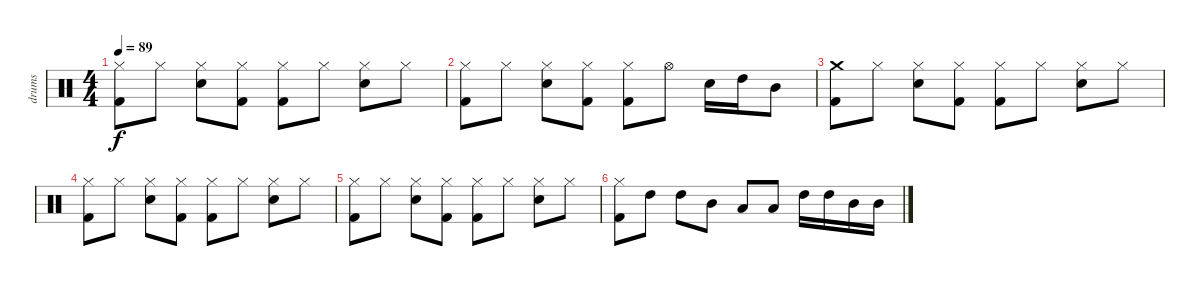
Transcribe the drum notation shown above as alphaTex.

\track ("drums" "drums") {instrument percussion}
\staff {score}
\articulation defaults
\ts (4 4)
\tempo 89
\clef neutral
\ks c
("Kick (hit) 2" "Hi-Hat (closed)").8{dy f volume 8} "Hi-Hat (closed)".8{volume 7} ("Snare (hit) 2" "Hi-Hat (closed)").8{volume 7} ("Kick (hit) 2" "Hi-Hat (closed)").8{volume 6} ("Kick (hit) 2" "Hi-Hat (closed)").8{volume 6} "Hi-Hat (closed)".8{volume 5} ("Snare (hit) 2" "Hi-Hat (closed)").8{volume 5} "Hi-Hat (closed)".8{volume 4} |
("Kick (hit) 2" "Hi-Hat (closed)").8{volume 4} "Hi-Hat (closed)".8{volume 3} ("Snare (hit) 2" "Hi-Hat (closed)").8{volume 3} ("Kick (hit) 2" "Hi-Hat (closed)").8{volume 2} ("Kick (hit) 2" "Hi-Hat (closed)").8{volume 2} "Hi-Hat (open)".8{volume 2} "Snare (hit) 2".16{volume 1} "High Tom (hit)".16{volume 1} "Mid Tom (hit)".8{volume 1} |
("Kick (hit) 2" "Crash medium (hit)").8{volume 0} "Hi-Hat (closed)".8{volume 0} ("Snare (hit) 2" "Hi-Hat (closed)").8 ("Kick (hit) 2" "Hi-Hat (closed)").8 ("Kick (hit) 2" "Hi-Hat (closed)").8 "Hi-Hat (closed)".8 ("Snare (hit) 2" "Hi-Hat (closed)").8 "Hi-Hat (closed)".8 |
("Kick (hit) 2" "Hi-Hat (closed)").8 "Hi-Hat (closed)".8 ("Snare (hit) 2" "Hi-Hat (closed)").8 ("Kick (hit) 2" "Hi-Hat (closed)").8 ("Kick (hit) 2" "Hi-Hat (closed)").8 "Hi-Hat (closed)".8 ("Snare (hit) 2" "Hi-Hat (closed)").8 "Hi-Hat (closed)".8 |
("Kick (hit) 2" "Hi-Hat (closed)").8 "Hi-Hat (closed)".8 ("Snare (hit) 2" "Hi-Hat (closed)").8 ("Kick (hit) 2" "Hi-Hat (closed)").8 ("Kick (hit) 2" "Hi-Hat (closed)").8 "Hi-Hat (closed)".8 ("Snare (hit) 2" "Hi-Hat (closed)").8 "Hi-Hat (closed)".8 |
("Kick (hit) 2" "Hi-Hat (closed)").8 "High Tom (hit)".8 "High Tom (hit)".8 "Mid Tom (hit)".8 "Low Tom (hit)".8 "Low Tom (hit)".8 "High Tom (hit)".16 "High Tom (hit)".16 "Mid Tom (hit)".16 "Mid Tom (hit)".16
